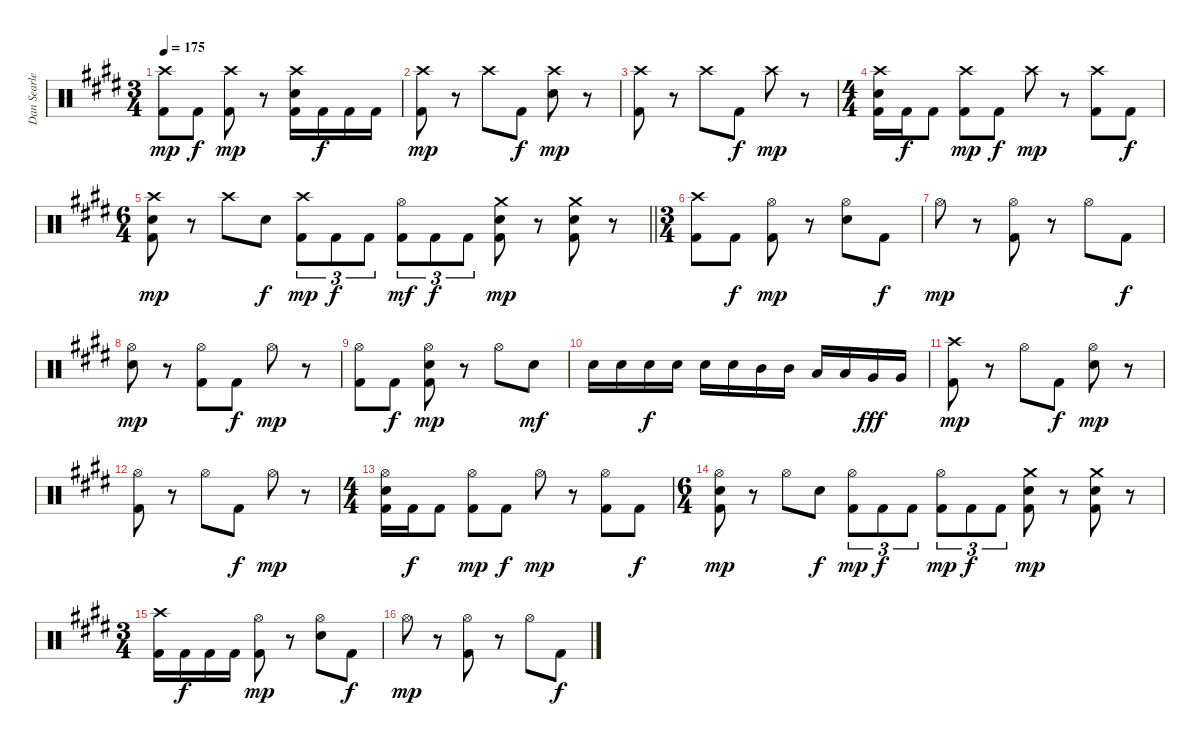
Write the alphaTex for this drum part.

\track ("Dan Searle" "Dan Searle") {instrument percussion}
\staff {score}
\articulation defaults
\ts (3 4)
\tempo 175
\clef neutral
\ks e
("Crash high (hit)" "Kick (hit) 2").8{dy mp} "Kick (hit) 2".8{dy f} ("Crash high (hit)" "Kick (hit) 2").8{dy mp} r.8 ("Crash high (hit)" "Electric Snare (hit)" "Kick (hit) 2").16 "Kick (hit) 2".16{dy f} "Kick (hit) 2".16 "Kick (hit) 2".16 |
("Crash high (hit)" "Kick (hit) 2").8{dy mp} r.8 "Crash high (hit)".8 "Kick (hit) 2".8{dy f} ("Crash high (hit)" "Electric Snare (hit)").8{dy mp} r.8 |
("Crash high (hit)" "Kick (hit) 2").8 r.8 "Crash high (hit)".8 "Kick (hit) 2".8{dy f} "Crash high (hit)".8{dy mp} r.8 |
\ts (4 4)
("Crash high (hit)" "Electric Snare (hit)" "Kick (hit) 2").16 "Kick (hit) 2".16{dy f} "Kick (hit) 2".8 ("Crash high (hit)" "Kick (hit) 2").8{dy mp} "Kick (hit) 2".8{dy f} "Crash high (hit)".8{dy mp} r.8 ("Crash high (hit)" "Kick (hit) 2").8 "Kick (hit) 2".8{dy f} |
\ts (6 4)
\barLineRight lightlight
("Crash high (hit)" "Electric Snare (hit)" "Kick (hit) 2").8{dy mp} r.8 "Crash high (hit)".8 "Electric Snare (hit)".8{dy f} ("Crash high (hit)" "Kick (hit) 2").8{tu (3 2) dy mp} "Kick (hit) 2".8{tu (3 2) dy f} "Kick (hit) 2".8{tu (3 2)} ("Hi-Hat (open)" "Kick (hit) 2").8{tu (3 2) dy mf} "Kick (hit) 2".8{tu (3 2) dy f} "Kick (hit) 2".8{tu (3 2)} ("Crash medium (hit)" "Electric Snare (hit)" "Kick (hit) 2").8{dy mp} r.8 ("Crash medium (hit)" "Electric Snare (hit)" "Kick (hit) 2").8 r.8 |
\ts (3 4)
("Crash high (hit)" "Kick (hit) 2").8 "Kick (hit) 2".8{dy f} ("Hi-Hat (open)" "Kick (hit) 2").8{dy mp} r.8 ("Hi-Hat (open)" "Electric Snare (hit)").8 "Kick (hit) 2".8{dy f} |
"Hi-Hat (open)".8{dy mp} r.8 ("Hi-Hat (open)" "Kick (hit) 2").8 r.8 "Hi-Hat (open)".8 "Kick (hit) 2".8{dy f} |
("Hi-Hat (open)" "Electric Snare (hit)").8{dy mp} r.8 ("Hi-Hat (open)" "Kick (hit) 2").8 "Kick (hit) 2".8{dy f} "Hi-Hat (open)".8{dy mp} r.8 |
("Hi-Hat (open)" "Kick (hit) 2").8 "Kick (hit) 2".8{dy f} ("Hi-Hat (open)" "Electric Snare (hit)" "Kick (hit) 2").8{dy mp} r.8 "Hi-Hat (open)".8 "Electric Snare (hit)".8{dy mf} |
"Electric Snare (hit)".16 "Electric Snare (hit)".16 "Electric Snare (hit)".16{dy f} "Electric Snare (hit)".16 "Electric Snare (hit)".16 "Electric Snare (hit)".16 "Mid Tom (hit)".16 "Mid Tom (hit)".16 "Low Tom (hit)".16 "Low Tom (hit)".16 "Very Low Tom (hit)".16{dy fff} "Very Low Tom (hit)".16 |
("Crash high (hit)" "Kick (hit) 2").8{dy mp} r.8 "Hi-Hat (open)".8 "Kick (hit) 2".8{dy f} ("Hi-Hat (open)" "Electric Snare (hit)").8{dy mp} r.8 |
("Hi-Hat (open)" "Kick (hit) 2").8 r.8 "Hi-Hat (open)".8 "Kick (hit) 2".8{dy f} "Hi-Hat (open)".8{dy mp} r.8 |
\ts (4 4)
("Hi-Hat (open)" "Electric Snare (hit)" "Kick (hit) 2").16 "Kick (hit) 2".16{dy f} "Kick (hit) 2".8 ("Hi-Hat (open)" "Kick (hit) 2").8{dy mp} "Kick (hit) 2".8{dy f} "Hi-Hat (open)".8{dy mp} r.8 ("Hi-Hat (open)" "Kick (hit) 2").8 "Kick (hit) 2".8{dy f} |
\ts (6 4)
("Hi-Hat (open)" "Electric Snare (hit)" "Kick (hit) 2").8{dy mp} r.8 "Hi-Hat (open)".8 "Electric Snare (hit)".8{dy f} ("Hi-Hat (open)" "Kick (hit) 2").8{tu (3 2) dy mp} "Kick (hit) 2".8{tu (3 2) dy f} "Kick (hit) 2".8{tu (3 2)} ("Hi-Hat (open)" "Kick (hit) 2").8{tu (3 2) dy mp} "Kick (hit) 2".8{tu (3 2) dy f} "Kick (hit) 2".8{tu (3 2)} ("Crash medium (hit)" "Electric Snare (hit)" "Kick (hit) 2").8{dy mp} r.8 ("Crash medium (hit)" "Electric Snare (hit)" "Kick (hit) 2").8 r.8 |
\ts (3 4)
("Crash high (hit)" "Kick (hit) 2").16 "Kick (hit) 2".16{dy f} "Kick (hit) 2".16 "Kick (hit) 2".16 ("Hi-Hat (open)" "Kick (hit) 2").8{dy mp} r.8 ("Hi-Hat (open)" "Electric Snare (hit)").8 "Kick (hit) 2".8{dy f} |
"Hi-Hat (open)".8{dy mp} r.8 ("Hi-Hat (open)" "Kick (hit) 2").8 r.8 "Hi-Hat (open)".8 "Kick (hit) 2".8{dy f}
